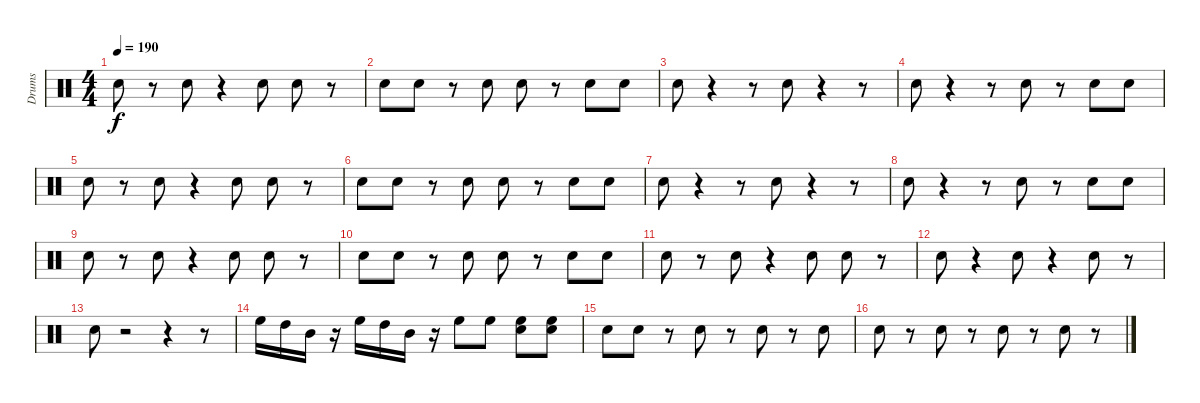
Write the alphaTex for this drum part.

\track ("Drums" "Drums") {instrument percussion}
\staff {score}
\articulation defaults
\ts (4 4)
\tempo 190
\clef neutral
\ks c "Electric Snare (hit)".8{dy f}
r.8 "Electric Snare (hit)".8 r.4 "Electric Snare (hit)".8 "Electric Snare (hit)".8 r.8 |
"Electric Snare (hit)".8 "Electric Snare (hit)".8 r.8 "Electric Snare (hit)".8 "Electric Snare (hit)".8 r.8 "Electric Snare (hit)".8 "Electric Snare (hit)".8 |
"Electric Snare (hit)".8 r.4 r.8 "Electric Snare (hit)".8 r.4 r.8 |
"Electric Snare (hit)".8 r.4 r.8 "Electric Snare (hit)".8 r.8 "Electric Snare (hit)".8 "Electric Snare (hit)".8 |
"Electric Snare (hit)".8 r.8 "Electric Snare (hit)".8 r.4 "Electric Snare (hit)".8 "Electric Snare (hit)".8 r.8 |
"Electric Snare (hit)".8 "Electric Snare (hit)".8 r.8 "Electric Snare (hit)".8 "Electric Snare (hit)".8 r.8 "Electric Snare (hit)".8 "Electric Snare (hit)".8 |
"Electric Snare (hit)".8 r.4 r.8 "Electric Snare (hit)".8 r.4 r.8 |
"Electric Snare (hit)".8 r.4 r.8 "Electric Snare (hit)".8 r.8 "Electric Snare (hit)".8 "Electric Snare (hit)".8 |
"Electric Snare (hit)".8 r.8 "Electric Snare (hit)".8 r.4 "Electric Snare (hit)".8 "Electric Snare (hit)".8 r.8 |
"Electric Snare (hit)".8 "Electric Snare (hit)".8 r.8 "Electric Snare (hit)".8 "Electric Snare (hit)".8 r.8 "Electric Snare (hit)".8 "Electric Snare (hit)".8 |
"Electric Snare (hit)".8 r.8 "Electric Snare (hit)".8 r.4 "Electric Snare (hit)".8 "Electric Snare (hit)".8 r.8 |
"Electric Snare (hit)".8 r.4 "Electric Snare (hit)".8 r.4 "Electric Snare (hit)".8 r.8 |
"Electric Snare (hit)".8 r.2 r.4 r.8 |
"High Floor Tom (hit)".16 "High Tom (hit)".16 "Mid Tom (hit)".16 r.16 "High Floor Tom (hit)".16 "High Tom (hit)".16 "Mid Tom (hit)".16 r.16 "High Floor Tom (hit)".8 "High Floor Tom (hit)".8 ("Electric Snare (hit)" "High Floor Tom (hit)").8 ("Electric Snare (hit)" "High Floor Tom (hit)").8 |
"Electric Snare (hit)".8 "Electric Snare (hit)".8 r.8 "Electric Snare (hit)".8 r.8 "Electric Snare (hit)".8 r.8 "Electric Snare (hit)".8 |
"Electric Snare (hit)".8 r.8 "Electric Snare (hit)".8 r.8 "Electric Snare (hit)".8 r.8 "Electric Snare (hit)".8 r.8
